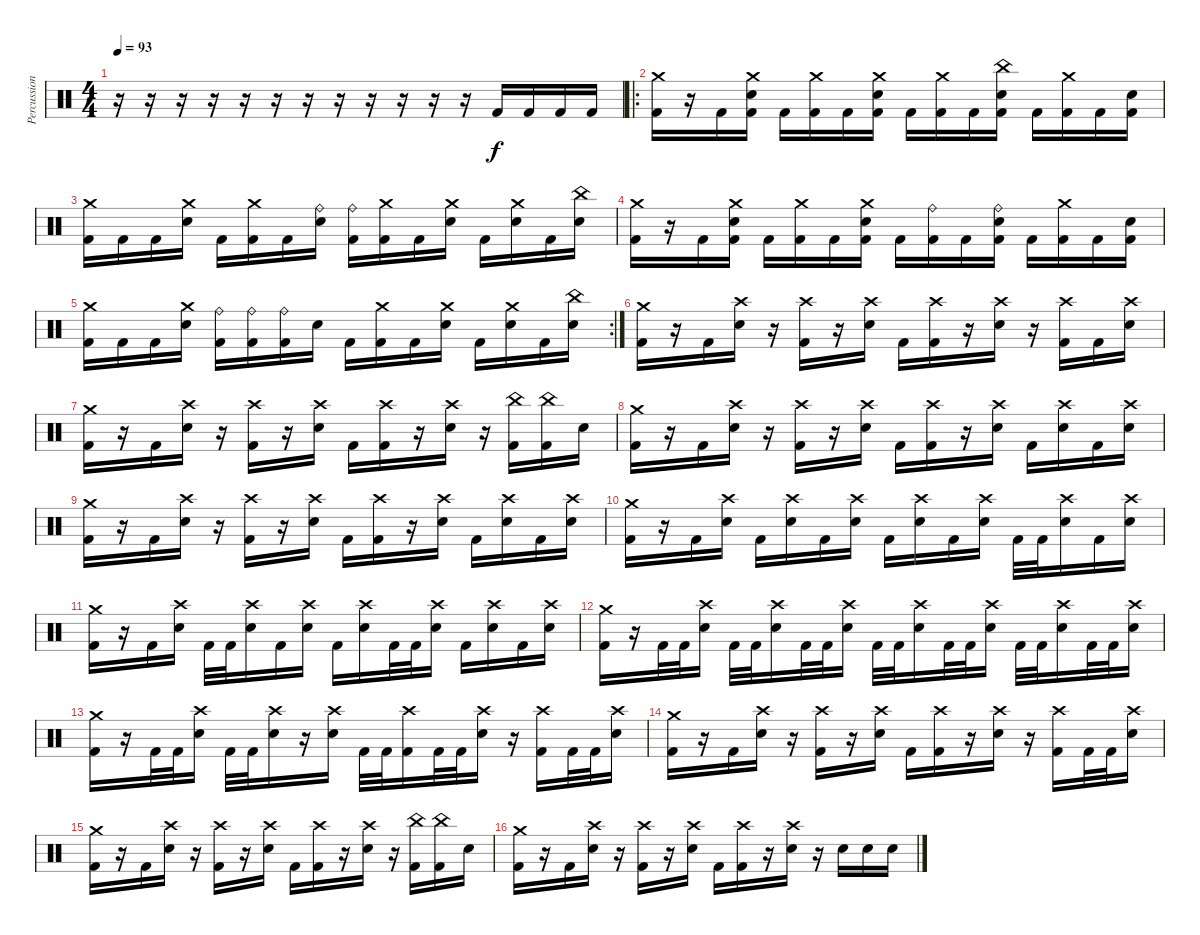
\track ("Percussion" "Percussion") {instrument percussion}
\staff {score}
\articulation defaults
\ts (4 4)
\tempo 93
\clef neutral
\ks c
r.16{dy f} r.16 r.16 r.16 r.16 r.16 r.16 r.16 r.16 r.16 r.16 r.16 "Kick (hit) 2".16 "Kick (hit) 2".16 "Kick (hit) 2".16 "Kick (hit) 2".16 |
\ro
("Crash medium (hit)" "Kick (hit) 2").16 r.16 "Kick (hit) 2".16 ("Crash medium (hit)" "Electric Snare (hit)" "Kick (hit) 2").16 "Kick (hit) 2".16 ("Crash medium (hit)" "Kick (hit) 2").16 "Kick (hit) 2".16 ("Crash medium (hit)" "Electric Snare (hit)" "Kick (hit) 2").16 "Kick (hit) 2".16 ("Crash medium (hit)" "Kick (hit) 2").16 "Kick (hit) 2".16 ("China (hit)" "Electric Snare (hit)" "Kick (hit) 2").16 "Kick (hit) 2".16 ("Crash medium (hit)" "Kick (hit) 2").16 "Kick (hit) 2".16 ("Electric Snare (hit)" "Kick (hit) 2").16 |
("Crash medium (hit)" "Kick (hit) 2").16 "Kick (hit) 2".16 "Kick (hit) 2".16 ("Crash medium (hit)" "Electric Snare (hit)").16 "Kick (hit) 2".16 ("Crash medium (hit)" "Kick (hit) 2").16 "Kick (hit) 2".16 ("Ride (bell)" "Electric Snare (hit)").16 ("Ride (bell)" "Kick (hit) 2").16 ("Crash medium (hit)" "Kick (hit) 2").16 "Kick (hit) 2".16 ("Crash medium (hit)" "Electric Snare (hit)").16 "Kick (hit) 2".16 ("Crash medium (hit)" "Electric Snare (hit)").16 "Kick (hit) 2".16 ("China (hit)" "Electric Snare (hit)").16 |
("Crash medium (hit)" "Kick (hit) 2").16 r.16 "Kick (hit) 2".16 ("Crash medium (hit)" "Electric Snare (hit)" "Kick (hit) 2").16 "Kick (hit) 2".16 ("Crash medium (hit)" "Kick (hit) 2").16 "Kick (hit) 2".16 ("Crash medium (hit)" "Electric Snare (hit)" "Kick (hit) 2").16 "Kick (hit) 2".16 ("Ride (bell)" "Kick (hit) 2").16 "Kick (hit) 2".16 ("Ride (bell)" "Electric Snare (hit)" "Kick (hit) 2").16 "Kick (hit) 2".16 ("Crash medium (hit)" "Kick (hit) 2").16 "Kick (hit) 2".16 ("Electric Snare (hit)" "Kick (hit) 2").16 |
\rc 2
("Crash medium (hit)" "Kick (hit) 2").16 "Kick (hit) 2".16 "Kick (hit) 2".16 ("Crash medium (hit)" "Electric Snare (hit)").16 ("Ride (bell)" "Kick (hit) 2").16 ("Ride (bell)" "Kick (hit) 2").16 ("Ride (bell)" "Kick (hit) 2").16 "Electric Snare (hit)".16 "Kick (hit) 2".16 ("Crash medium (hit)" "Kick (hit) 2").16 "Kick (hit) 2".16 ("Crash medium (hit)" "Electric Snare (hit)").16 "Kick (hit) 2".16 ("Crash medium (hit)" "Electric Snare (hit)").16 "Kick (hit) 2".16 ("China (hit)" "Electric Snare (hit)").16 |
("Crash medium (hit)" "Kick (hit) 2").16 r.16 "Kick (hit) 2".16 ("Crash high (hit)" "Electric Snare (hit)").16 r.16 ("Crash high (hit)" "Kick (hit) 2").16 r.16 ("Crash high (hit)" "Electric Snare (hit)").16 "Kick (hit) 2".16 ("Crash high (hit)" "Kick (hit) 2").16 r.16 ("Crash high (hit)" "Electric Snare (hit)").16 r.16 ("Crash high (hit)" "Kick (hit) 2").16 "Kick (hit) 2".16 ("Crash high (hit)" "Electric Snare (hit)").16 |
("Crash medium (hit)" "Kick (hit) 2").16 r.16 "Kick (hit) 2".16 ("Crash high (hit)" "Electric Snare (hit)").16 r.16 ("Crash high (hit)" "Kick (hit) 2").16 r.16 ("Crash high (hit)" "Electric Snare (hit)").16 "Kick (hit) 2".16 ("Crash high (hit)" "Kick (hit) 2").16 r.16 ("Crash high (hit)" "Electric Snare (hit)").16 r.16 ("China (hit)" "Kick (hit) 2").16 ("China (hit)" "Kick (hit) 2").16 "Electric Snare (hit)".16 |
("Crash medium (hit)" "Kick (hit) 2").16 r.16 "Kick (hit) 2".16 ("Crash high (hit)" "Electric Snare (hit)").16 r.16 ("Crash high (hit)" "Kick (hit) 2").16 r.16 ("Crash high (hit)" "Electric Snare (hit)").16 "Kick (hit) 2".16 ("Crash high (hit)" "Kick (hit) 2").16 r.16 ("Crash high (hit)" "Electric Snare (hit)").16 "Kick (hit) 2".16 ("Crash high (hit)" "Electric Snare (hit)").16 "Kick (hit) 2".16 ("Crash high (hit)" "Electric Snare (hit)").16 |
("Crash medium (hit)" "Kick (hit) 2").16 r.16 "Kick (hit) 2".16 ("Crash high (hit)" "Electric Snare (hit)").16 r.16 ("Crash high (hit)" "Kick (hit) 2").16 r.16 ("Crash high (hit)" "Electric Snare (hit)").16 "Kick (hit) 2".16 ("Crash high (hit)" "Kick (hit) 2").16 r.16 ("Crash high (hit)" "Electric Snare (hit)").16 "Kick (hit) 2".16 ("Crash high (hit)" "Electric Snare (hit)").16 "Kick (hit) 2".16 ("Crash high (hit)" "Electric Snare (hit)").16 |
("Crash medium (hit)" "Kick (hit) 2").16 r.16 "Kick (hit) 2".16 ("Crash high (hit)" "Electric Snare (hit)").16 "Kick (hit) 2".16 ("Crash high (hit)" "Electric Snare (hit)").16 "Kick (hit) 2".16 ("Crash high (hit)" "Electric Snare (hit)").16 "Kick (hit) 2".16 ("Crash high (hit)" "Electric Snare (hit)").16 "Kick (hit) 2".16 ("Crash high (hit)" "Electric Snare (hit)").16 "Kick (hit) 2".32 "Kick (hit) 2".32 ("Crash high (hit)" "Electric Snare (hit)").16 "Kick (hit) 2".16 ("Crash high (hit)" "Electric Snare (hit)").16 |
("Crash medium (hit)" "Kick (hit) 2").16 r.16 "Kick (hit) 2".16 ("Crash high (hit)" "Electric Snare (hit)").16 "Kick (hit) 2".32 "Kick (hit) 2".32 ("Crash high (hit)" "Electric Snare (hit)").16 "Kick (hit) 2".16 ("Crash high (hit)" "Electric Snare (hit)").16 "Kick (hit) 2".16 ("Crash high (hit)" "Electric Snare (hit)").16 "Kick (hit) 2".32 "Kick (hit) 2".32 ("Crash high (hit)" "Electric Snare (hit)").16 "Kick (hit) 2".16 ("Crash high (hit)" "Electric Snare (hit)").16 "Kick (hit) 2".16 ("Crash high (hit)" "Electric Snare (hit)").16 |
("Crash medium (hit)" "Kick (hit) 2").16 r.16 "Kick (hit) 2".32 "Kick (hit) 2".32 ("Crash high (hit)" "Electric Snare (hit)").16 "Kick (hit) 2".32 "Kick (hit) 2".32 ("Crash high (hit)" "Electric Snare (hit)").16 "Kick (hit) 2".32 "Kick (hit) 2".32 ("Crash high (hit)" "Electric Snare (hit)").16 "Kick (hit) 2".32 "Kick (hit) 2".32 ("Crash high (hit)" "Electric Snare (hit)").16 "Kick (hit) 2".32 "Kick (hit) 2".32 ("Crash high (hit)" "Electric Snare (hit)").16 "Kick (hit) 2".32 "Kick (hit) 2".32 ("Crash high (hit)" "Electric Snare (hit)").16 "Kick (hit) 2".32 "Kick (hit) 2".32 ("Crash high (hit)" "Electric Snare (hit)").16 |
("Kick (hit) 2" "Crash medium (hit)").16 r.16 "Kick (hit) 2".32 "Kick (hit) 2".32 ("Electric Snare (hit)" "Crash high (hit)").16 "Kick (hit) 2".32 "Kick (hit) 2".32 ("Electric Snare (hit)" "Crash high (hit)").16 r.16 ("Electric Snare (hit)" "Crash high (hit)").16 "Kick (hit) 2".32 "Kick (hit) 2".32 ("Kick (hit) 2" "Crash high (hit)").16 "Kick (hit) 2".32 "Kick (hit) 2".32 ("Electric Snare (hit)" "Crash high (hit)").16 r.16 ("Kick (hit) 2" "Crash high (hit)").16 "Kick (hit) 2".32 "Kick (hit) 2".32 ("Electric Snare (hit)" "Crash high (hit)").16 |
("Crash medium (hit)" "Kick (hit) 2").16 r.16 "Kick (hit) 2".16 ("Crash high (hit)" "Electric Snare (hit)").16 r.16 ("Crash high (hit)" "Kick (hit) 2").16 r.16 ("Crash high (hit)" "Electric Snare (hit)").16 "Kick (hit) 2".16 ("Crash high (hit)" "Kick (hit) 2").16 r.16 ("Crash high (hit)" "Electric Snare (hit)").16 r.16 ("Crash high (hit)" "Kick (hit) 2").16 "Kick (hit) 2".32 "Kick (hit) 2".32 ("Crash high (hit)" "Electric Snare (hit)").16 |
("Crash medium (hit)" "Kick (hit) 2").16 r.16 "Kick (hit) 2".16 ("Crash high (hit)" "Electric Snare (hit)").16 r.16 ("Crash high (hit)" "Kick (hit) 2").16 r.16 ("Crash high (hit)" "Electric Snare (hit)").16 "Kick (hit) 2".16 ("Crash high (hit)" "Kick (hit) 2").16 r.16 ("Crash high (hit)" "Electric Snare (hit)").16 r.16 ("China (hit)" "Kick (hit) 2").16 ("China (hit)" "Kick (hit) 2").16 "Electric Snare (hit)".16 |
("Crash medium (hit)" "Kick (hit) 2").16 r.16 "Kick (hit) 2".16 ("Crash high (hit)" "Electric Snare (hit)").16 r.16 ("Crash high (hit)" "Kick (hit) 2").16 r.16 ("Crash high (hit)" "Electric Snare (hit)").16 "Kick (hit) 2".16 ("Crash high (hit)" "Kick (hit) 2").16 r.16 ("Crash high (hit)" "Electric Snare (hit)").16 r.16 "Electric Snare (hit)".16 "Electric Snare (hit)".16 "Electric Snare (hit)".16
